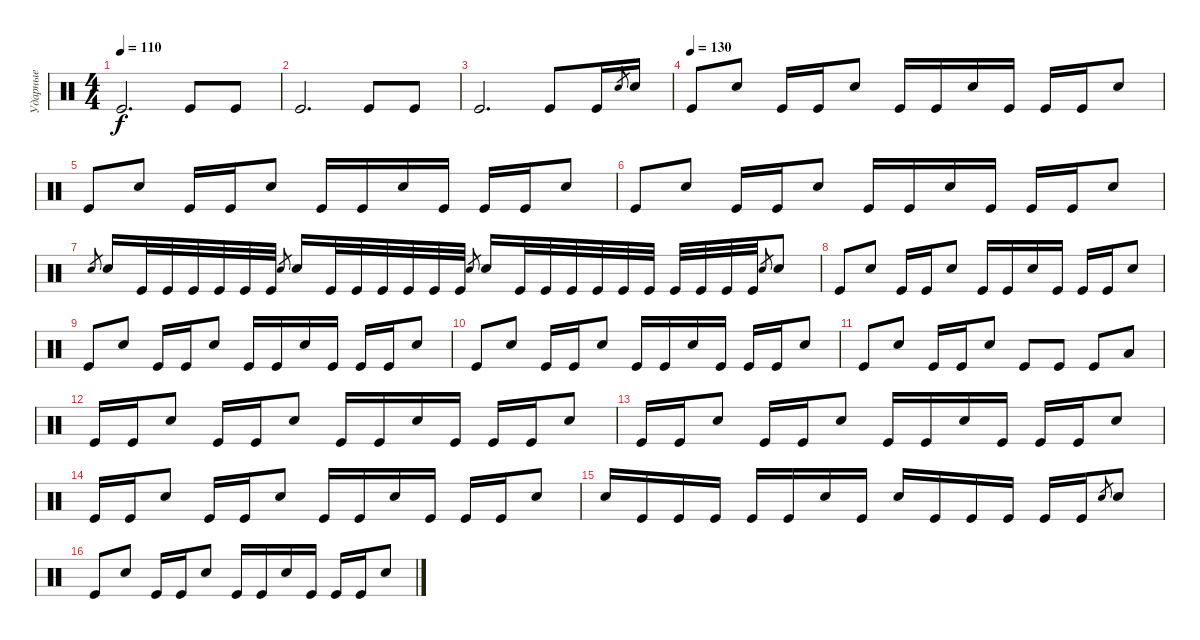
\track ("Ударные" "Ударные") {instrument percussion}
\staff {score}
\articulation defaults
\ts (4 4)
\tempo 110
\clef neutral
\ks c "Kick (hit)".2{d dy f} "Kick (hit)".8 "Kick (hit)".8
|
"Kick (hit)".2{d} "Kick (hit)".8 "Kick (hit)".8 |
"Kick (hit)".2{d} "Kick (hit)".8 "Kick (hit)".16 "Snare (hit) 2".8{gr} "Snare (hit) 2".16 |
\tempo (130)
"Kick (hit)".8 "Snare (hit) 2".8 "Kick (hit)".16 "Kick (hit)".16 "Snare (hit) 2".8 "Kick (hit)".16 "Kick (hit)".16 "Snare (hit) 2".16 "Kick (hit)".16 "Kick (hit)".16 "Kick (hit)".16 "Snare (hit) 2".8 |
"Kick (hit)".8 "Snare (hit) 2".8 "Kick (hit)".16 "Kick (hit)".16 "Snare (hit) 2".8 "Kick (hit)".16 "Kick (hit)".16 "Snare (hit) 2".16 "Kick (hit)".16 "Kick (hit)".16 "Kick (hit)".16 "Snare (hit) 2".8 |
"Kick (hit)".8 "Snare (hit) 2".8 "Kick (hit)".16 "Kick (hit)".16 "Snare (hit) 2".8 "Kick (hit)".16 "Kick (hit)".16 "Snare (hit) 2".16 "Kick (hit)".16 "Kick (hit)".16 "Kick (hit)".16 "Snare (hit) 2".8 |
"Snare (hit) 2".8{gr} "Snare (hit) 2".16 "Kick (hit)".32 "Kick (hit)".32 "Kick (hit)".32 "Kick (hit)".32 "Kick (hit)".32 "Kick (hit)".32 "Snare (hit) 2".8{gr} "Snare (hit) 2".16 "Kick (hit)".32 "Kick (hit)".32 "Kick (hit)".32 "Kick (hit)".32 "Kick (hit)".32 "Kick (hit)".32 "Snare (hit) 2".8{gr} "Snare (hit) 2".16 "Kick (hit)".32 "Kick (hit)".32 "Kick (hit)".32 "Kick (hit)".32 "Kick (hit)".32 "Kick (hit)".32 "Kick (hit)".32 "Kick (hit)".32 "Kick (hit)".32 "Kick (hit)".32 "Snare (hit) 2".8{gr} "Snare (hit) 2".8 |
"Kick (hit)".8 "Snare (hit) 2".8 "Kick (hit)".16 "Kick (hit)".16 "Snare (hit) 2".8 "Kick (hit)".16 "Kick (hit)".16 "Snare (hit) 2".16 "Kick (hit)".16 "Kick (hit)".16 "Kick (hit)".16 "Snare (hit) 2".8 |
"Kick (hit)".8 "Snare (hit) 2".8 "Kick (hit)".16 "Kick (hit)".16 "Snare (hit) 2".8 "Kick (hit)".16 "Kick (hit)".16 "Snare (hit) 2".16 "Kick (hit)".16 "Kick (hit)".16 "Kick (hit)".16 "Snare (hit) 2".8 |
"Kick (hit)".8 "Snare (hit) 2".8 "Kick (hit)".16 "Kick (hit)".16 "Snare (hit) 2".8 "Kick (hit)".16 "Kick (hit)".16 "Snare (hit) 2".16 "Kick (hit)".16 "Kick (hit)".16 "Kick (hit)".16 "Snare (hit) 2".8 |
"Kick (hit)".8 "Snare (hit) 2".8 "Kick (hit)".16 "Kick (hit)".16 "Snare (hit) 2".8 "Kick (hit)".8 "Kick (hit)".8 "Kick (hit)".8 "Low Floor Tom (hit)".8 |
"Kick (hit)".16 "Kick (hit)".16 "Snare (hit) 2".8 "Kick (hit)".16 "Kick (hit)".16 "Snare (hit) 2".8 "Kick (hit)".16 "Kick (hit)".16 "Snare (hit) 2".16 "Kick (hit)".16 "Kick (hit)".16 "Kick (hit)".16 "Snare (hit) 2".8 |
"Kick (hit)".16 "Kick (hit)".16 "Snare (hit) 2".8 "Kick (hit)".16 "Kick (hit)".16 "Snare (hit) 2".8 "Kick (hit)".16 "Kick (hit)".16 "Snare (hit) 2".16 "Kick (hit)".16 "Kick (hit)".16 "Kick (hit)".16 "Snare (hit) 2".8 |
"Kick (hit)".16 "Kick (hit)".16 "Snare (hit) 2".8 "Kick (hit)".16 "Kick (hit)".16 "Snare (hit) 2".8 "Kick (hit)".16 "Kick (hit)".16 "Snare (hit) 2".16 "Kick (hit)".16 "Kick (hit)".16 "Kick (hit)".16 "Snare (hit) 2".8 |
"Snare (hit) 2".16 "Kick (hit)".16 "Kick (hit)".16 "Kick (hit)".16 "Kick (hit)".16 "Kick (hit)".16 "Snare (hit) 2".16 "Kick (hit)".16 "Snare (hit) 2".16 "Kick (hit)".16 "Kick (hit)".16 "Kick (hit)".16 "Kick (hit)".16 "Kick (hit)".16 "Snare (hit) 2".8{gr} "Snare (hit) 2".8 |
"Kick (hit)".8 "Snare (hit) 2".8 "Kick (hit)".16 "Kick (hit)".16 "Snare (hit) 2".8 "Kick (hit)".16 "Kick (hit)".16 "Snare (hit) 2".16 "Kick (hit)".16 "Kick (hit)".16 "Kick (hit)".16 "Snare (hit) 2".8
